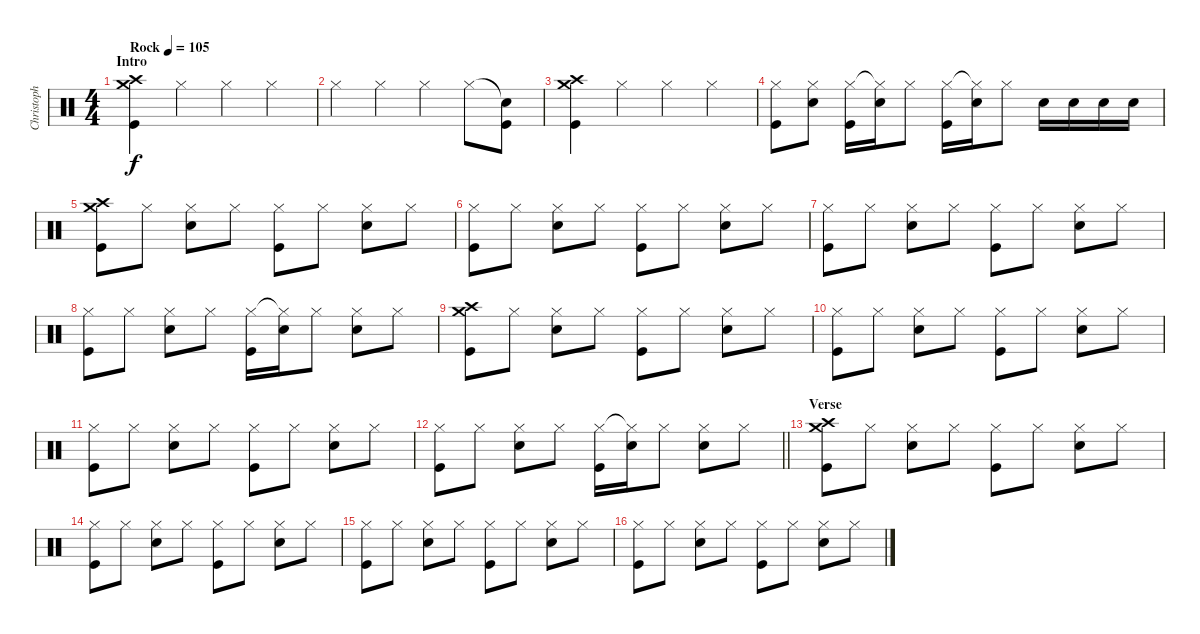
\track ("Christoph Schneider" "Christoph ") {instrument percussion}
\staff {score}
\articulation defaults
\ts (4 4)
\section ("" "Intro")
\tempo (105 "Rock")
\clef neutral
\ks c
("Crash medium (hit)" "Crash high (hit)" "Kick (hit)").4{dy f} "Hi-Hat (closed)".4 "Hi-Hat (closed)".4 "Hi-Hat (closed)".4 |
"Hi-Hat (closed)".4 "Hi-Hat (closed)".4 "Hi-Hat (closed)".4 "Hi-Hat (closed)".8 ("Snare (hit)"{t} "Kick (hit)").8 |
("Crash medium (hit)" "Crash high (hit)" "Kick (hit)").4 "Hi-Hat (closed)".4 "Hi-Hat (closed)".4 "Hi-Hat (closed)".4 |
("Hi-Hat (closed)" "Kick (hit)").8 ("Hi-Hat (closed)" "Snare (hit) 2").8 ("Hi-Hat (closed)" "Kick (hit)").16 ("Hi-Hat (closed)"{t} "Snare (hit) 2").16 "Hi-Hat (closed)".8 ("Hi-Hat (closed)" "Kick (hit)").16 ("Hi-Hat (closed)"{t} "Snare (hit) 2").16 "Hi-Hat (closed)".8 "Snare (hit) 2".16 "Snare (hit) 2".16 "Snare (hit) 2".16 "Snare (hit) 2".16 |
("Crash medium (hit)" "Crash high (hit)" "Kick (hit)").8 "Hi-Hat (closed)".8 ("Hi-Hat (closed)" "Snare (hit) 2").8 "Hi-Hat (closed)".8 ("Hi-Hat (closed)" "Kick (hit)").8 "Hi-Hat (closed)".8 ("Hi-Hat (closed)" "Snare (hit) 2").8 "Hi-Hat (closed)".8 |
("Hi-Hat (closed)" "Kick (hit)").8 "Hi-Hat (closed)".8 ("Hi-Hat (closed)" "Snare (hit) 2").8 "Hi-Hat (closed)".8 ("Hi-Hat (closed)" "Kick (hit)").8 "Hi-Hat (closed)".8 ("Hi-Hat (closed)" "Snare (hit) 2").8 "Hi-Hat (closed)".8 |
("Hi-Hat (closed)" "Kick (hit)").8 "Hi-Hat (closed)".8 ("Hi-Hat (closed)" "Snare (hit) 2").8 "Hi-Hat (closed)".8 ("Hi-Hat (closed)" "Kick (hit)").8 "Hi-Hat (closed)".8 ("Hi-Hat (closed)" "Snare (hit) 2").8 "Hi-Hat (closed)".8 |
("Hi-Hat (closed)" "Kick (hit)").8 "Hi-Hat (closed)".8 ("Hi-Hat (closed)" "Snare (hit) 2").8 "Hi-Hat (closed)".8 ("Hi-Hat (closed)" "Kick (hit)").16 ("Hi-Hat (closed)"{t} "Snare (hit) 2").16 "Hi-Hat (closed)".8 ("Hi-Hat (closed)" "Snare (hit) 2").8 "Hi-Hat (closed)".8 |
("Crash medium (hit)" "Crash high (hit)" "Kick (hit)").8 "Hi-Hat (closed)".8 ("Hi-Hat (closed)" "Snare (hit) 2").8 "Hi-Hat (closed)".8 ("Hi-Hat (closed)" "Kick (hit)").8 "Hi-Hat (closed)".8 ("Hi-Hat (closed)" "Snare (hit) 2").8 "Hi-Hat (closed)".8 |
("Hi-Hat (closed)" "Kick (hit)").8 "Hi-Hat (closed)".8 ("Hi-Hat (closed)" "Snare (hit) 2").8 "Hi-Hat (closed)".8 ("Hi-Hat (closed)" "Kick (hit)").8 "Hi-Hat (closed)".8 ("Hi-Hat (closed)" "Snare (hit) 2").8 "Hi-Hat (closed)".8 |
("Hi-Hat (closed)" "Kick (hit)").8 "Hi-Hat (closed)".8 ("Hi-Hat (closed)" "Snare (hit) 2").8 "Hi-Hat (closed)".8 ("Hi-Hat (closed)" "Kick (hit)").8 "Hi-Hat (closed)".8 ("Hi-Hat (closed)" "Snare (hit) 2").8 "Hi-Hat (closed)".8 |
\barLineRight lightlight
("Hi-Hat (closed)" "Kick (hit)").8 "Hi-Hat (closed)".8 ("Hi-Hat (closed)" "Snare (hit) 2").8 "Hi-Hat (closed)".8 ("Hi-Hat (closed)" "Kick (hit)").16 ("Hi-Hat (closed)"{t} "Snare (hit) 2").16 "Hi-Hat (closed)".8 ("Hi-Hat (closed)" "Snare (hit) 2").8 "Hi-Hat (closed)".8 |
\section ("" "Verse")
("Crash medium (hit)" "Crash high (hit)" "Kick (hit)").8 "Hi-Hat (closed)".8 ("Hi-Hat (closed)" "Snare (hit) 2").8 "Hi-Hat (closed)".8 ("Hi-Hat (closed)" "Kick (hit)").8 "Hi-Hat (closed)".8 ("Hi-Hat (closed)" "Snare (hit) 2").8 "Hi-Hat (closed)".8 |
("Hi-Hat (closed)" "Kick (hit)").8 "Hi-Hat (closed)".8 ("Hi-Hat (closed)" "Snare (hit) 2").8 "Hi-Hat (closed)".8 ("Hi-Hat (closed)" "Kick (hit)").8 "Hi-Hat (closed)".8 ("Hi-Hat (closed)" "Snare (hit) 2").8 "Hi-Hat (closed)".8 |
("Hi-Hat (closed)" "Kick (hit)").8 "Hi-Hat (closed)".8 ("Hi-Hat (closed)" "Snare (hit) 2").8 "Hi-Hat (closed)".8 ("Hi-Hat (closed)" "Kick (hit)").8 "Hi-Hat (closed)".8 ("Hi-Hat (closed)" "Snare (hit) 2").8 "Hi-Hat (closed)".8 |
("Hi-Hat (closed)" "Kick (hit)").8 "Hi-Hat (closed)".8 ("Hi-Hat (closed)" "Snare (hit) 2").8 "Hi-Hat (closed)".8 ("Hi-Hat (closed)" "Kick (hit)").8 "Hi-Hat (closed)".8 ("Hi-Hat (closed)" "Snare (hit) 2").8 "Hi-Hat (closed)".8
